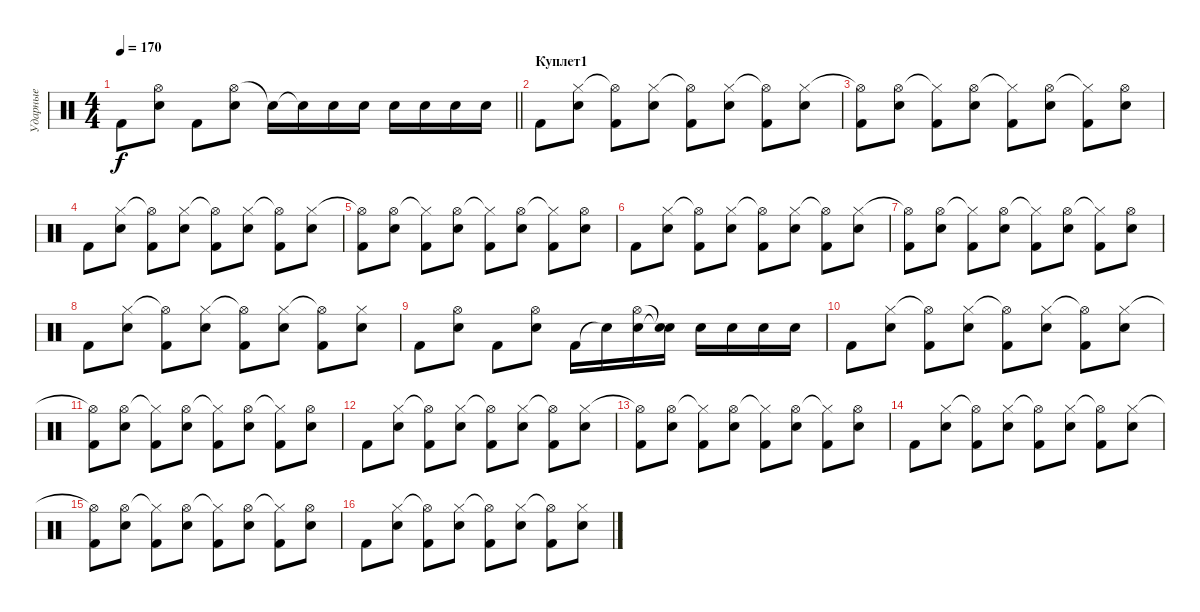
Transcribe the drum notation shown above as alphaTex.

\track ("Ударные" "Ударные") {instrument percussion}
\staff {score}
\articulation defaults
\ts (4 4)
\tempo 170
\clef neutral
\barLineRight lightlight
\ks c "Kick (hit) 2".8{dy f}
("Hi-Hat (open)" "Electric Snare (hit)").8 "Kick (hit) 2".8 ("Hi-Hat (open)" "Electric Snare (hit)").8 "Electric Snare (hit)"{t}.16 "Electric Snare (hit)"{t}.16 "Electric Snare (hit)".16 "Electric Snare (hit)".16 "Electric Snare (hit)".16 "Electric Snare (hit)".16 "Electric Snare (hit)".16 "Electric Snare (hit)".16 |
\section ("" "Куплет1")
"Kick (hit) 2".8 ("Hi-Hat (closed)" "Electric Snare (hit)").8 ("Hi-Hat (open)"{t} "Kick (hit) 2").8 ("Hi-Hat (closed)" "Electric Snare (hit)").8 ("Hi-Hat (open)"{t} "Kick (hit) 2").8 ("Hi-Hat (closed)" "Electric Snare (hit)").8 ("Hi-Hat (open)"{t} "Kick (hit) 2").8 ("Hi-Hat (closed)" "Electric Snare (hit)").8 |
("Hi-Hat (open)"{t} "Kick (hit) 2").8 ("Hi-Hat (open)" "Electric Snare (hit)").8 ("Hi-Hat (closed)"{t} "Kick (hit) 2").8 ("Hi-Hat (open)" "Electric Snare (hit)").8 ("Hi-Hat (closed)"{t} "Kick (hit) 2").8 ("Hi-Hat (open)" "Electric Snare (hit)").8 ("Hi-Hat (closed)"{t} "Kick (hit) 2").8 ("Hi-Hat (open)" "Electric Snare (hit)").8 |
"Kick (hit) 2".8 ("Hi-Hat (closed)" "Electric Snare (hit)").8 ("Hi-Hat (open)"{t} "Kick (hit) 2").8 ("Hi-Hat (closed)" "Electric Snare (hit)").8 ("Hi-Hat (open)"{t} "Kick (hit) 2").8 ("Hi-Hat (closed)" "Electric Snare (hit)").8 ("Hi-Hat (open)"{t} "Kick (hit) 2").8 ("Hi-Hat (closed)" "Electric Snare (hit)").8 |
("Hi-Hat (open)"{t} "Kick (hit) 2").8 ("Hi-Hat (open)" "Electric Snare (hit)").8 ("Hi-Hat (closed)"{t} "Kick (hit) 2").8 ("Hi-Hat (open)" "Electric Snare (hit)").8 ("Hi-Hat (closed)"{t} "Kick (hit) 2").8 ("Hi-Hat (open)" "Electric Snare (hit)").8 ("Hi-Hat (closed)"{t} "Kick (hit) 2").8 ("Hi-Hat (open)" "Electric Snare (hit)").8 |
"Kick (hit) 2".8 ("Hi-Hat (closed)" "Electric Snare (hit)").8 ("Hi-Hat (open)"{t} "Kick (hit) 2").8 ("Hi-Hat (closed)" "Electric Snare (hit)").8 ("Hi-Hat (open)"{t} "Kick (hit) 2").8 ("Hi-Hat (closed)" "Electric Snare (hit)").8 ("Hi-Hat (open)"{t} "Kick (hit) 2").8 ("Hi-Hat (closed)" "Electric Snare (hit)").8 |
("Hi-Hat (open)"{t} "Kick (hit) 2").8 ("Hi-Hat (open)" "Electric Snare (hit)").8 ("Hi-Hat (closed)"{t} "Kick (hit) 2").8 ("Hi-Hat (open)" "Electric Snare (hit)").8 ("Hi-Hat (closed)"{t} "Kick (hit) 2").8 ("Hi-Hat (open)" "Electric Snare (hit)").8 ("Hi-Hat (closed)"{t} "Kick (hit) 2").8 ("Hi-Hat (open)" "Electric Snare (hit)").8 |
"Kick (hit) 2".8 ("Hi-Hat (closed)" "Electric Snare (hit)").8 ("Hi-Hat (open)"{t} "Kick (hit) 2").8 ("Hi-Hat (closed)" "Electric Snare (hit)").8 ("Hi-Hat (open)"{t} "Kick (hit) 2").8 ("Hi-Hat (closed)" "Electric Snare (hit)").8 ("Hi-Hat (open)"{t} "Kick (hit) 2").8 ("Hi-Hat (closed)" "Electric Snare (hit)").8 |
"Kick (hit) 2".8 ("Hi-Hat (open)" "Electric Snare (hit)").8 "Kick (hit) 2".8 ("Hi-Hat (open)" "Electric Snare (hit)").8 "Kick (hit) 2".16 "Electric Snare (hit)"{t}.16 ("Electric Snare (hit)" "Hi-Hat (open)").16 ("Electric Snare (hit)"{t} "Snare (hit)"{t}).16 "Electric Snare (hit)".16 "Electric Snare (hit)".16 "Electric Snare (hit)".16 "Electric Snare (hit)".16 |
"Kick (hit) 2".8 ("Hi-Hat (closed)" "Electric Snare (hit)").8 ("Hi-Hat (open)"{t} "Kick (hit) 2").8 ("Hi-Hat (closed)" "Electric Snare (hit)").8 ("Hi-Hat (open)"{t} "Kick (hit) 2").8 ("Hi-Hat (closed)" "Electric Snare (hit)").8 ("Hi-Hat (open)"{t} "Kick (hit) 2").8 ("Hi-Hat (closed)" "Electric Snare (hit)").8 |
("Hi-Hat (open)"{t} "Kick (hit) 2").8 ("Hi-Hat (open)" "Electric Snare (hit)").8 ("Hi-Hat (closed)"{t} "Kick (hit) 2").8 ("Hi-Hat (open)" "Electric Snare (hit)").8 ("Hi-Hat (closed)"{t} "Kick (hit) 2").8 ("Hi-Hat (open)" "Electric Snare (hit)").8 ("Hi-Hat (closed)"{t} "Kick (hit) 2").8 ("Hi-Hat (open)" "Electric Snare (hit)").8 |
"Kick (hit) 2".8 ("Hi-Hat (closed)" "Electric Snare (hit)").8 ("Hi-Hat (open)"{t} "Kick (hit) 2").8 ("Hi-Hat (closed)" "Electric Snare (hit)").8 ("Hi-Hat (open)"{t} "Kick (hit) 2").8 ("Hi-Hat (closed)" "Electric Snare (hit)").8 ("Hi-Hat (open)"{t} "Kick (hit) 2").8 ("Hi-Hat (closed)" "Electric Snare (hit)").8 |
("Hi-Hat (open)"{t} "Kick (hit) 2").8 ("Hi-Hat (open)" "Electric Snare (hit)").8 ("Hi-Hat (closed)"{t} "Kick (hit) 2").8 ("Hi-Hat (open)" "Electric Snare (hit)").8 ("Hi-Hat (closed)"{t} "Kick (hit) 2").8 ("Hi-Hat (open)" "Electric Snare (hit)").8 ("Hi-Hat (closed)"{t} "Kick (hit) 2").8 ("Hi-Hat (open)" "Electric Snare (hit)").8 |
"Kick (hit) 2".8 ("Hi-Hat (closed)" "Electric Snare (hit)").8 ("Hi-Hat (open)"{t} "Kick (hit) 2").8 ("Hi-Hat (closed)" "Electric Snare (hit)").8 ("Hi-Hat (open)"{t} "Kick (hit) 2").8 ("Hi-Hat (closed)" "Electric Snare (hit)").8 ("Hi-Hat (open)"{t} "Kick (hit) 2").8 ("Hi-Hat (closed)" "Electric Snare (hit)").8 |
("Hi-Hat (open)"{t} "Kick (hit) 2").8 ("Hi-Hat (open)" "Electric Snare (hit)").8 ("Hi-Hat (closed)"{t} "Kick (hit) 2").8 ("Hi-Hat (open)" "Electric Snare (hit)").8 ("Hi-Hat (closed)"{t} "Kick (hit) 2").8 ("Hi-Hat (open)" "Electric Snare (hit)").8 ("Hi-Hat (closed)"{t} "Kick (hit) 2").8 ("Hi-Hat (open)" "Electric Snare (hit)").8 |
"Kick (hit) 2".8 ("Hi-Hat (closed)" "Electric Snare (hit)").8 ("Hi-Hat (open)"{t} "Kick (hit) 2").8 ("Hi-Hat (closed)" "Electric Snare (hit)").8 ("Hi-Hat (open)"{t} "Kick (hit) 2").8 ("Hi-Hat (closed)" "Electric Snare (hit)").8 ("Hi-Hat (open)"{t} "Kick (hit) 2").8 ("Hi-Hat (closed)" "Electric Snare (hit)").8
